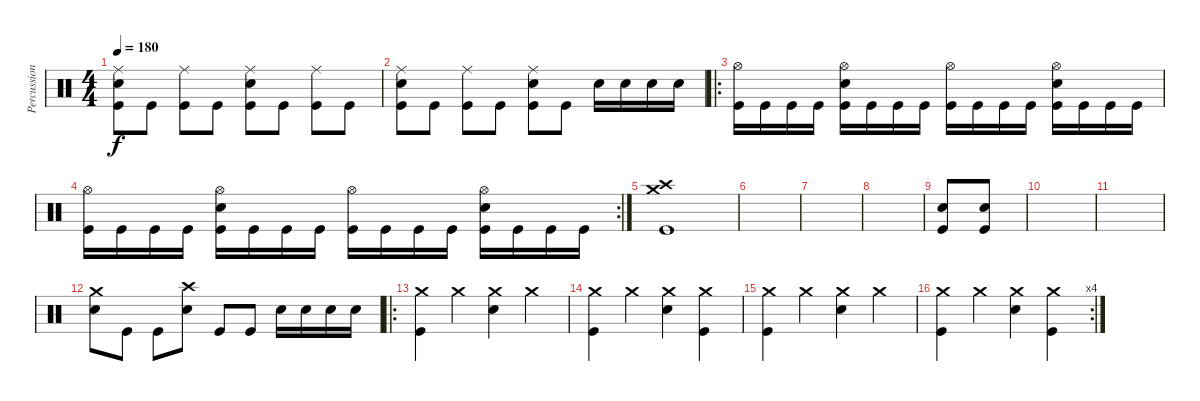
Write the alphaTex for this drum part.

\track ("Percussion" "Percussion") {instrument percussion}
\staff {score}
\articulation defaults
\ts (4 4)
\tempo 180
\clef neutral
\ks c
("Ride (middle)" "Snare (hit) 2" "Kick (hit)").8{dy f} "Kick (hit)".8 ("Ride (middle)" "Kick (hit)").8 "Kick (hit)".8 ("Ride (middle)" "Snare (hit) 2" "Kick (hit)").8 "Kick (hit)".8 ("Ride (middle)" "Kick (hit)").8 "Kick (hit)".8 |
("Ride (middle)" "Snare (hit) 2" "Kick (hit)").8 "Kick (hit)".8 ("Ride (middle)" "Kick (hit)").8 "Kick (hit)".8 ("Ride (middle)" "Snare (hit) 2" "Kick (hit)").8 "Kick (hit)".8 "Snare (hit) 2".16 "Snare (hit) 2".16 "Snare (hit) 2".16 "Snare (hit) 2".16 |
\ro
("Hi-Hat (open)" "Kick (hit)").16 "Kick (hit)".16 "Kick (hit)".16 "Kick (hit)".16 ("Hi-Hat (open)" "Snare (hit) 2" "Kick (hit)").16 "Kick (hit)".16 "Kick (hit)".16 "Kick (hit)".16 ("Hi-Hat (open)" "Kick (hit)").16 "Kick (hit)".16 "Kick (hit)".16 "Kick (hit)".16 ("Hi-Hat (open)" "Snare (hit) 2" "Kick (hit)").16 "Kick (hit)".16 "Kick (hit)".16 "Kick (hit)".16 |
\rc 2
("Hi-Hat (open)" "Kick (hit)").16 "Kick (hit)".16 "Kick (hit)".16 "Kick (hit)".16 ("Hi-Hat (open)" "Snare (hit) 2" "Kick (hit)").16 "Kick (hit)".16 "Kick (hit)".16 "Kick (hit)".16 ("Hi-Hat (open)" "Kick (hit)").16 "Kick (hit)".16 "Kick (hit)".16 "Kick (hit)".16 ("Hi-Hat (open)" "Snare (hit) 2" "Kick (hit)").16 "Kick (hit)".16 "Kick (hit)".16 "Kick (hit)".16 |
("Crash medium (hit)" "Crash high (hit)" "Kick (hit)").1 |
|
|
|
("Snare (hit) 2" "Kick (hit)").8 ("Snare (hit) 2" "Kick (hit)").8 |
|
|
("Crash medium (hit)" "Snare (hit) 2").8 "Kick (hit)".8 "Kick (hit)".8 ("Crash high (hit)" "Snare (hit) 2").8 "Kick (hit)".8 "Kick (hit)".8 "Snare (hit) 2".16 "Snare (hit) 2".16 "Snare (hit) 2".16 "Snare (hit) 2".16 |
\ro
("Crash medium (hit)" "Kick (hit)").4 "Crash medium (hit)".4 ("Crash medium (hit)" "Snare (hit) 2").4 "Crash medium (hit)".4 |
("Crash medium (hit)" "Kick (hit)").4 "Crash medium (hit)".4 ("Crash medium (hit)" "Snare (hit) 2").4 ("Crash medium (hit)" "Kick (hit)").4 |
("Crash medium (hit)" "Kick (hit)").4 "Crash medium (hit)".4 ("Crash medium (hit)" "Snare (hit) 2").4 "Crash medium (hit)".4 |
\rc 4
("Crash medium (hit)" "Kick (hit)").4 "Crash medium (hit)".4 ("Crash medium (hit)" "Snare (hit) 2").4 ("Crash medium (hit)" "Kick (hit)").4
